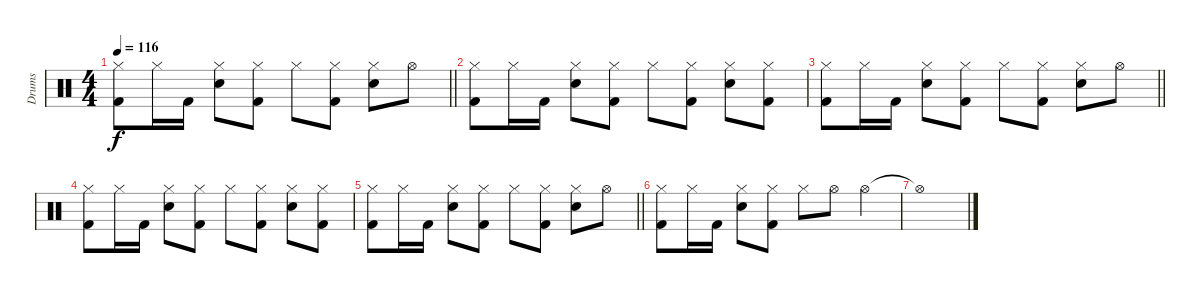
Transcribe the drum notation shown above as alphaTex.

\track ("Drums" "Drums") {instrument percussion}
\staff {score}
\articulation defaults
\ts (4 4)
\tempo 116
\clef neutral
\barLineRight lightlight
\ks c
("Hi-Hat (closed)" "Kick (hit) 2").8{dy f} "Hi-Hat (closed)".16 "Kick (hit) 2".16 ("Hi-Hat (closed)" "Snare (hit) 2").8 ("Hi-Hat (closed)" "Kick (hit) 2").8 "Hi-Hat (closed)".8 ("Hi-Hat (closed)" "Kick (hit) 2").8 ("Hi-Hat (closed)" "Snare (hit) 2").8 "Hi-Hat (open)".8 |
("Hi-Hat (closed)" "Kick (hit) 2").8 "Hi-Hat (closed)".16 "Kick (hit) 2".16 ("Hi-Hat (closed)" "Snare (hit) 2").8 ("Hi-Hat (closed)" "Kick (hit) 2").8 "Hi-Hat (closed)".8 ("Hi-Hat (closed)" "Kick (hit) 2").8 ("Hi-Hat (closed)" "Snare (hit) 2").8 ("Hi-Hat (closed)" "Kick (hit) 2").8 |
\barLineRight lightlight
("Hi-Hat (closed)" "Kick (hit) 2").8 "Hi-Hat (closed)".16 "Kick (hit) 2".16 ("Hi-Hat (closed)" "Snare (hit) 2").8 ("Hi-Hat (closed)" "Kick (hit) 2").8 "Hi-Hat (closed)".8 ("Hi-Hat (closed)" "Kick (hit) 2").8 ("Hi-Hat (closed)" "Snare (hit) 2").8 "Hi-Hat (open)".8 |
("Hi-Hat (closed)" "Kick (hit) 2").8 "Hi-Hat (closed)".16 "Kick (hit) 2".16 ("Hi-Hat (closed)" "Snare (hit) 2").8 ("Hi-Hat (closed)" "Kick (hit) 2").8 "Hi-Hat (closed)".8 ("Hi-Hat (closed)" "Kick (hit) 2").8 ("Hi-Hat (closed)" "Snare (hit) 2").8 ("Hi-Hat (closed)" "Kick (hit) 2").8 |
\barLineRight lightlight
("Hi-Hat (closed)" "Kick (hit) 2").8 "Hi-Hat (closed)".16 "Kick (hit) 2".16 ("Hi-Hat (closed)" "Snare (hit) 2").8 ("Hi-Hat (closed)" "Kick (hit) 2").8 "Hi-Hat (closed)".8 ("Hi-Hat (closed)" "Kick (hit) 2").8 ("Hi-Hat (closed)" "Snare (hit) 2").8 "Hi-Hat (open)".8 |
("Hi-Hat (closed)" "Kick (hit) 2").8 "Hi-Hat (closed)".16 "Kick (hit) 2".16 ("Hi-Hat (closed)" "Snare (hit) 2").8 ("Hi-Hat (closed)" "Kick (hit) 2").8 "Hi-Hat (closed)".8 "Hi-Hat (open)".8 "Hi-Hat (open)".4 |
"Hi-Hat (open)"{t}.1
